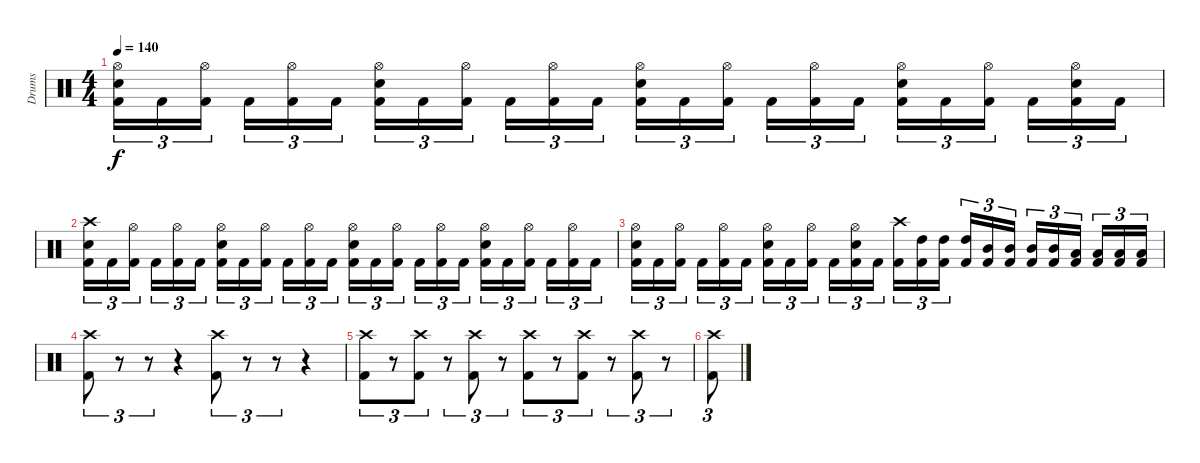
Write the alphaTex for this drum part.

\track ("Drums" "Drums") {instrument percussion}
\staff {score}
\articulation defaults
\ts (4 4)
\tempo 140
\clef neutral
\ks c
("Kick (hit) 2" "Snare (hit) 2" "Hi-Hat (open)").16{tu (3 2) dy f} "Kick (hit) 2".16{tu (3 2)} ("Kick (hit) 2" "Hi-Hat (open)").16{tu (3 2)} "Kick (hit) 2".16{tu (3 2)} ("Kick (hit) 2" "Hi-Hat (open)").16{tu (3 2)} "Kick (hit) 2".16{tu (3 2)} ("Kick (hit) 2" "Snare (hit) 2" "Hi-Hat (open)").16{tu (3 2)} "Kick (hit) 2".16{tu (3 2)} ("Kick (hit) 2" "Hi-Hat (open)").16{tu (3 2)} "Kick (hit) 2".16{tu (3 2)} ("Kick (hit) 2" "Hi-Hat (open)").16{tu (3 2)} "Kick (hit) 2".16{tu (3 2)} ("Kick (hit) 2" "Snare (hit) 2" "Hi-Hat (open)").16{tu (3 2)} "Kick (hit) 2".16{tu (3 2)} ("Kick (hit) 2" "Hi-Hat (open)").16{tu (3 2)} "Kick (hit) 2".16{tu (3 2)} ("Kick (hit) 2" "Hi-Hat (open)").16{tu (3 2)} "Kick (hit) 2".16{tu (3 2)} ("Kick (hit) 2" "Snare (hit) 2" "Hi-Hat (open)").16{tu (3 2)} "Kick (hit) 2".16{tu (3 2)} ("Kick (hit) 2" "Hi-Hat (open)").16{tu (3 2)} "Kick (hit) 2".16{tu (3 2)} ("Kick (hit) 2" "Snare (hit) 2" "Hi-Hat (open)").16{tu (3 2)} "Kick (hit) 2".16{tu (3 2)} |
("Kick (hit) 2" "Snare (hit) 2" "Crash high (hit)").16{tu (3 2)} "Kick (hit) 2".16{tu (3 2)} ("Kick (hit) 2" "Hi-Hat (open)").16{tu (3 2)} "Kick (hit) 2".16{tu (3 2)} ("Kick (hit) 2" "Hi-Hat (open)").16{tu (3 2)} "Kick (hit) 2".16{tu (3 2)} ("Kick (hit) 2" "Snare (hit) 2" "Hi-Hat (open)").16{tu (3 2)} "Kick (hit) 2".16{tu (3 2)} ("Kick (hit) 2" "Hi-Hat (open)").16{tu (3 2)} "Kick (hit) 2".16{tu (3 2)} ("Kick (hit) 2" "Hi-Hat (open)").16{tu (3 2)} "Kick (hit) 2".16{tu (3 2)} ("Kick (hit) 2" "Snare (hit) 2" "Hi-Hat (open)").16{tu (3 2)} "Kick (hit) 2".16{tu (3 2)} ("Kick (hit) 2" "Hi-Hat (open)").16{tu (3 2)} "Kick (hit) 2".16{tu (3 2)} ("Kick (hit) 2" "Hi-Hat (open)").16{tu (3 2)} "Kick (hit) 2".16{tu (3 2)} ("Kick (hit) 2" "Snare (hit) 2" "Hi-Hat (open)").16{tu (3 2)} "Kick (hit) 2".16{tu (3 2)} ("Kick (hit) 2" "Hi-Hat (open)").16{tu (3 2)} "Kick (hit) 2".16{tu (3 2)} ("Kick (hit) 2" "Hi-Hat (open)").16{tu (3 2)} "Kick (hit) 2".16{tu (3 2)} |
("Kick (hit) 2" "Snare (hit) 2" "Hi-Hat (open)").16{tu (3 2)} "Kick (hit) 2".16{tu (3 2)} ("Kick (hit) 2" "Hi-Hat (open)").16{tu (3 2)} "Kick (hit) 2".16{tu (3 2)} ("Kick (hit) 2" "Hi-Hat (open)").16{tu (3 2)} "Kick (hit) 2".16{tu (3 2)} ("Kick (hit) 2" "Snare (hit) 2" "Hi-Hat (open)").16{tu (3 2)} "Kick (hit) 2".16{tu (3 2)} ("Kick (hit) 2" "Hi-Hat (open)").16{tu (3 2)} "Kick (hit) 2".16{tu (3 2)} ("Kick (hit) 2" "Snare (hit) 2" "Hi-Hat (open)").16{tu (3 2)} "Kick (hit) 2".16{tu (3 2)} ("Kick (hit) 2" "Crash high (hit)").16{tu (3 2)} ("Kick (hit) 2" "High Tom (hit)").16{tu (3 2)} ("Kick (hit) 2" "High Tom (hit)").16{tu (3 2)} ("Kick (hit) 2" "High Tom (hit)").16{tu (3 2)} ("Kick (hit) 2" "Mid Tom (hit)").16{tu (3 2)} ("Kick (hit) 2" "Mid Tom (hit)").16{tu (3 2)} ("Kick (hit) 2" "Mid Tom (hit)").16{tu (3 2)} ("Kick (hit) 2" "Mid Tom (hit)").16{tu (3 2)} ("Kick (hit) 2" "Low Tom (hit)").16{tu (3 2)} ("Kick (hit) 2" "Low Tom (hit)").16{tu (3 2)} ("Kick (hit) 2" "Low Tom (hit)").16{tu (3 2)} ("Kick (hit) 2" "Low Tom (hit)").16{tu (3 2)} |
("Kick (hit) 2" "Crash high (hit)").8{tu (3 2)} r.8{tu (3 2)} r.8{tu (3 2)} r.4 ("Kick (hit) 2" "Crash high (hit)").8{tu (3 2)} r.8{tu (3 2)} r.8{tu (3 2)} r.4 |
("Kick (hit) 2" "Crash high (hit)").8{tu (3 2)} r.8{tu (3 2)} ("Kick (hit) 2" "Crash high (hit)").8{tu (3 2)} r.8{tu (3 2)} ("Kick (hit) 2" "Crash high (hit)").8{tu (3 2)} r.8{tu (3 2)} ("Kick (hit) 2" "Crash high (hit)").8{tu (3 2)} r.8{tu (3 2)} ("Kick (hit) 2" "Crash high (hit)").8{tu (3 2)} r.8{tu (3 2)} ("Kick (hit) 2" "Crash high (hit)").8{tu (3 2)} r.8{tu (3 2)} |
("Kick (hit) 2" "Crash high (hit)").8{tu (3 2)}
